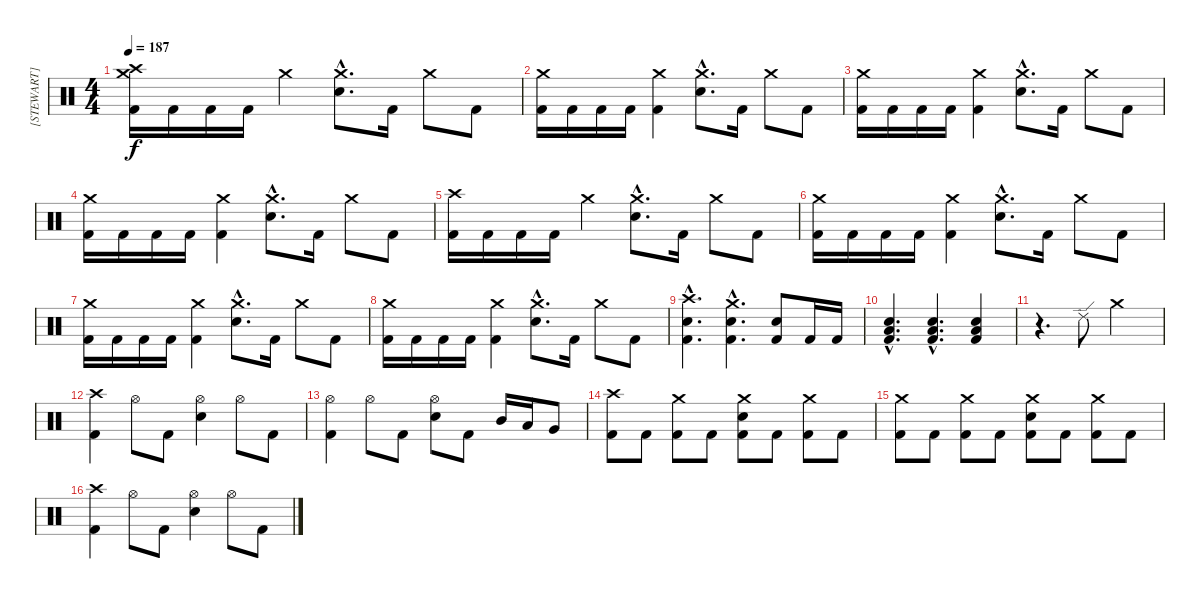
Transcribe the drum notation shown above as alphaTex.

\track ("[STEWART]" "[STEWART]") {instrument percussion}
\staff {score}
\articulation defaults
\ts (4 4)
\tempo 187
\clef neutral
\ks c
("Crash medium (hit)" "Crash high (hit)" "Kick (hit) 2").16{dy f} "Kick (hit) 2".16 "Kick (hit) 2".16 "Kick (hit) 2".16 "Crash medium (hit)".4 ("Crash medium (hit)"{hac} "Electric Snare (hit)"{hac}).8{d} "Kick (hit) 2".16 "Crash medium (hit)".8 "Kick (hit) 2".8 |
("Crash medium (hit)" "Kick (hit) 2").16 "Kick (hit) 2".16 "Kick (hit) 2".16 "Kick (hit) 2".16 ("Crash medium (hit)" "Kick (hit) 2").4 ("Crash medium (hit)"{hac} "Electric Snare (hit)"{hac}).8{d} "Kick (hit) 2".16 "Crash medium (hit)".8 "Kick (hit) 2".8 |
("Crash medium (hit)" "Kick (hit) 2").16 "Kick (hit) 2".16 "Kick (hit) 2".16 "Kick (hit) 2".16 ("Crash medium (hit)" "Kick (hit) 2").4 ("Crash medium (hit)"{hac} "Electric Snare (hit)"{hac}).8{d} "Kick (hit) 2".16 "Crash medium (hit)".8 "Kick (hit) 2".8 |
("Crash medium (hit)" "Kick (hit) 2").16 "Kick (hit) 2".16 "Kick (hit) 2".16 "Kick (hit) 2".16 ("Crash medium (hit)" "Kick (hit) 2").4 ("Crash medium (hit)"{hac} "Electric Snare (hit)"{hac}).8{d} "Kick (hit) 2".16 "Crash medium (hit)".8 "Kick (hit) 2".8 |
("Crash high (hit)" "Kick (hit) 2").16 "Kick (hit) 2".16 "Kick (hit) 2".16 "Kick (hit) 2".16 "Crash medium (hit)".4 ("Crash medium (hit)"{hac} "Electric Snare (hit)"{hac}).8{d} "Kick (hit) 2".16 "Crash medium (hit)".8 "Kick (hit) 2".8 |
("Crash medium (hit)" "Kick (hit) 2").16 "Kick (hit) 2".16 "Kick (hit) 2".16 "Kick (hit) 2".16 ("Crash medium (hit)" "Kick (hit) 2").4 ("Crash medium (hit)"{hac} "Electric Snare (hit)"{hac}).8{d} "Kick (hit) 2".16 "Crash medium (hit)".8 "Kick (hit) 2".8 |
("Crash medium (hit)" "Kick (hit) 2").16 "Kick (hit) 2".16 "Kick (hit) 2".16 "Kick (hit) 2".16 ("Crash medium (hit)" "Kick (hit) 2").4 ("Crash medium (hit)"{hac} "Electric Snare (hit)"{hac}).8{d} "Kick (hit) 2".16 "Crash medium (hit)".8 "Kick (hit) 2".8 |
("Crash medium (hit)" "Kick (hit) 2").16 "Kick (hit) 2".16 "Kick (hit) 2".16 "Kick (hit) 2".16 ("Crash medium (hit)" "Kick (hit) 2").4 ("Crash medium (hit)"{hac} "Electric Snare (hit)"{hac}).8{d} "Kick (hit) 2".16 "Crash medium (hit)".8 "Kick (hit) 2".8 |
("Crash high (hit)"{hac} "Electric Snare (hit)"{hac} "Kick (hit) 2"{hac}).4{d} ("Crash medium (hit)"{hac} "Electric Snare (hit)"{hac} "Kick (hit) 2"{hac}).4{d} ("Electric Snare (hit)" "Kick (hit) 2").8 "Kick (hit) 2".16 "Kick (hit) 2".16 |
("Electric Snare (hit)"{hac} "Low Tom (hit)"{hac} "Kick (hit) 2"{hac}).4{d} ("Electric Snare (hit)"{hac} "Low Tom (hit)"{hac} "Kick (hit) 2"{hac}).4{d} ("Electric Snare (hit)" "Low Tom (hit)" "Kick (hit) 2").4 |
r.4{d} "Ride (edge) 2".8 "Crash medium (hit)".2 |
("Crash high (hit)" "Kick (hit) 2").4 "Hi-Hat (open)".8 "Kick (hit) 2".8 ("Hi-Hat (open)" "Electric Snare (hit)").4 "Hi-Hat (open)".8 "Kick (hit) 2".8 |
("Hi-Hat (open)" "Kick (hit) 2").4 "Hi-Hat (open)".8 "Kick (hit) 2".8 ("Hi-Hat (open)" "Electric Snare (hit)").8 "Kick (hit) 2".8 "Mid Tom (hit)".16 "Low Tom (hit)".16 "Very Low Tom (hit)".8 |
("Crash high (hit)" "Kick (hit) 2").8 "Kick (hit) 2".8 ("Crash medium (hit)" "Kick (hit) 2").8 "Kick (hit) 2".8 ("Crash medium (hit)" "Electric Snare (hit)" "Kick (hit) 2").8 "Kick (hit) 2".8 ("Crash medium (hit)" "Kick (hit) 2").8 "Kick (hit) 2".8 |
("Crash medium (hit)" "Kick (hit) 2").8 "Kick (hit) 2".8 ("Crash medium (hit)" "Kick (hit) 2").8 "Kick (hit) 2".8 ("Crash medium (hit)" "Electric Snare (hit)" "Kick (hit) 2").8 "Kick (hit) 2".8 ("Crash medium (hit)" "Kick (hit) 2").8 "Kick (hit) 2".8 |
("Crash high (hit)" "Kick (hit) 2").4 "Hi-Hat (open)".8 "Kick (hit) 2".8 ("Hi-Hat (open)" "Electric Snare (hit)").4 "Hi-Hat (open)".8 "Kick (hit) 2".8
